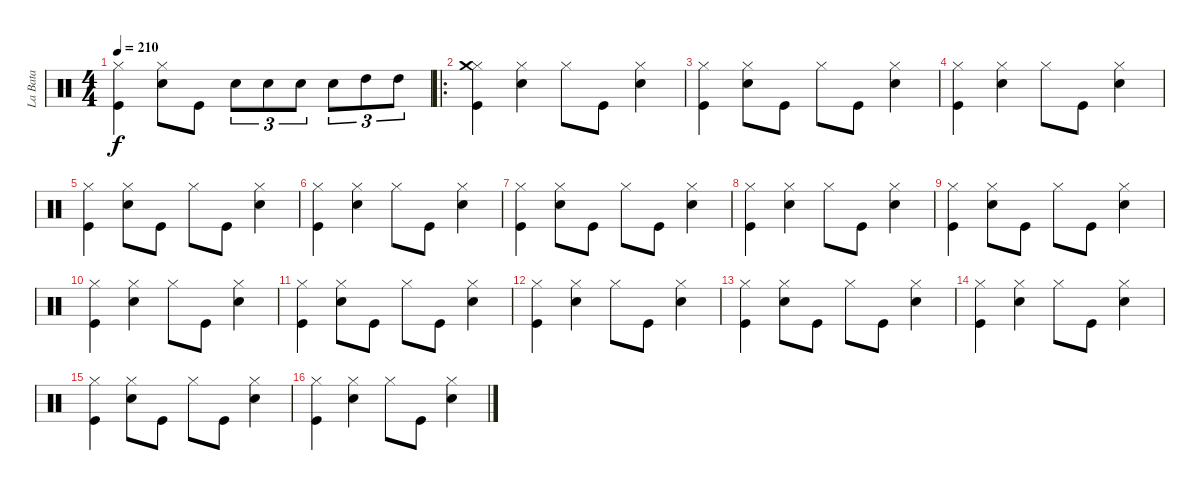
\track ("La Bata" "La Bata") {instrument percussion}
\staff {score}
\articulation defaults
\ts (4 4)
\tempo 210
\clef neutral
\ks c
("Hi-Hat (closed)" "Kick (hit)").4{dy f} ("Snare (hit) 2" "Hi-Hat (closed)").8 "Kick (hit)".8 "Snare (hit) 2".8{tu (3 2)} "Snare (hit) 2".8{tu (3 2)} "Snare (hit) 2".8{tu (3 2)} "Snare (hit) 2".8{tu (3 2)} "High Tom (hit)".8{tu (3 2)} "High Tom (hit)".8{tu (3 2)} |
\ro
("Kick (hit)" "Hi-Hat (closed)" "Crash medium (hit)").4 ("Snare (hit) 2" "Hi-Hat (closed)").4 "Hi-Hat (closed)".8 "Kick (hit)".8 ("Snare (hit) 2" "Hi-Hat (closed)").4 |
("Hi-Hat (closed)" "Kick (hit)").4 ("Snare (hit) 2" "Hi-Hat (closed)").8 "Kick (hit)".8 "Hi-Hat (closed)".8 "Kick (hit)".8 ("Hi-Hat (closed)" "Snare (hit) 2").4 |
("Kick (hit)" "Hi-Hat (closed)").4 ("Snare (hit) 2" "Hi-Hat (closed)").4 "Hi-Hat (closed)".8 "Kick (hit)".8 ("Snare (hit) 2" "Hi-Hat (closed)").4 |
("Hi-Hat (closed)" "Kick (hit)").4 ("Snare (hit) 2" "Hi-Hat (closed)").8 "Kick (hit)".8 "Hi-Hat (closed)".8 "Kick (hit)".8 ("Hi-Hat (closed)" "Snare (hit) 2").4 |
("Kick (hit)" "Hi-Hat (closed)").4 ("Snare (hit) 2" "Hi-Hat (closed)").4 "Hi-Hat (closed)".8 "Kick (hit)".8 ("Snare (hit) 2" "Hi-Hat (closed)").4 |
("Hi-Hat (closed)" "Kick (hit)").4 ("Snare (hit) 2" "Hi-Hat (closed)").8 "Kick (hit)".8 "Hi-Hat (closed)".8 "Kick (hit)".8 ("Hi-Hat (closed)" "Snare (hit) 2").4 |
("Kick (hit)" "Hi-Hat (closed)").4 ("Snare (hit) 2" "Hi-Hat (closed)").4 "Hi-Hat (closed)".8 "Kick (hit)".8 ("Snare (hit) 2" "Hi-Hat (closed)").4 |
("Hi-Hat (closed)" "Kick (hit)").4 ("Snare (hit) 2" "Hi-Hat (closed)").8 "Kick (hit)".8 "Hi-Hat (closed)".8 "Kick (hit)".8 ("Hi-Hat (closed)" "Snare (hit) 2").4 |
("Kick (hit)" "Hi-Hat (closed)").4 ("Snare (hit) 2" "Hi-Hat (closed)").4 "Hi-Hat (closed)".8 "Kick (hit)".8 ("Snare (hit) 2" "Hi-Hat (closed)").4 |
("Hi-Hat (closed)" "Kick (hit)").4 ("Snare (hit) 2" "Hi-Hat (closed)").8 "Kick (hit)".8 "Hi-Hat (closed)".8 "Kick (hit)".8 ("Hi-Hat (closed)" "Snare (hit) 2").4 |
("Kick (hit)" "Hi-Hat (closed)").4 ("Snare (hit) 2" "Hi-Hat (closed)").4 "Hi-Hat (closed)".8 "Kick (hit)".8 ("Snare (hit) 2" "Hi-Hat (closed)").4 |
("Hi-Hat (closed)" "Kick (hit)").4 ("Snare (hit) 2" "Hi-Hat (closed)").8 "Kick (hit)".8 "Hi-Hat (closed)".8 "Kick (hit)".8 ("Hi-Hat (closed)" "Snare (hit) 2").4 |
("Kick (hit)" "Hi-Hat (closed)").4 ("Snare (hit) 2" "Hi-Hat (closed)").4 "Hi-Hat (closed)".8 "Kick (hit)".8 ("Snare (hit) 2" "Hi-Hat (closed)").4 |
("Hi-Hat (closed)" "Kick (hit)").4 ("Snare (hit) 2" "Hi-Hat (closed)").8 "Kick (hit)".8 "Hi-Hat (closed)".8 "Kick (hit)".8 ("Hi-Hat (closed)" "Snare (hit) 2").4 |
("Kick (hit)" "Hi-Hat (closed)").4 ("Snare (hit) 2" "Hi-Hat (closed)").4 "Hi-Hat (closed)".8 "Kick (hit)".8 ("Snare (hit) 2" "Hi-Hat (closed)").4
